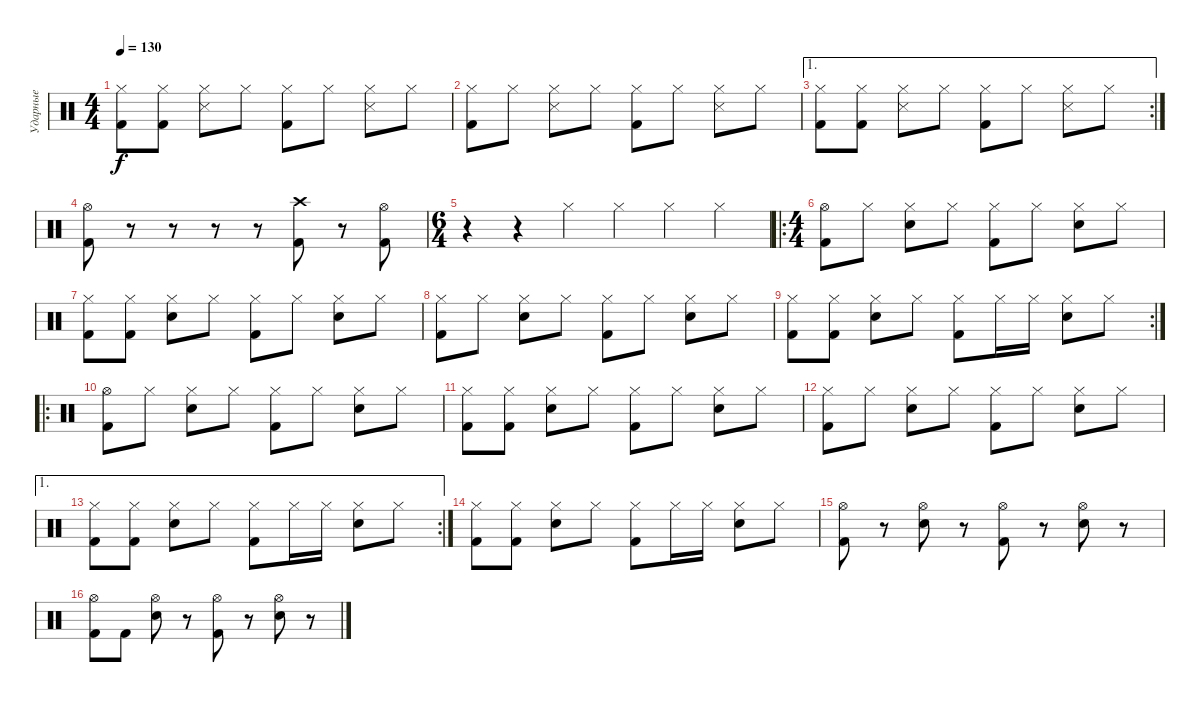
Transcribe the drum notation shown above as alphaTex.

\track ("Ударные" "Ударные") {instrument percussion}
\staff {score}
\articulation defaults
\ts (4 4)
\tempo 130
\clef neutral
\ks c
("Kick (hit) 2" "Hi-Hat (closed)").8{dy f} ("Kick (hit) 2" "Hi-Hat (closed)").8 ("Snare (side stick) 3" "Hi-Hat (closed)").8 "Hi-Hat (closed)".8 ("Kick (hit) 2" "Hi-Hat (closed)").8 "Hi-Hat (closed)".8 ("Snare (side stick) 3" "Hi-Hat (closed)").8 "Hi-Hat (closed)".8 |
("Kick (hit) 2" "Hi-Hat (closed)").8 "Hi-Hat (closed)".8 ("Snare (side stick) 3" "Hi-Hat (closed)").8 "Hi-Hat (closed)".8 ("Kick (hit) 2" "Hi-Hat (closed)").8 "Hi-Hat (closed)".8 ("Snare (side stick) 3" "Hi-Hat (closed)").8 "Hi-Hat (closed)".8 |
\ae 1
\rc 2
("Kick (hit) 2" "Hi-Hat (closed)").8 ("Kick (hit) 2" "Hi-Hat (closed)").8 ("Snare (side stick) 3" "Hi-Hat (closed)").8 "Hi-Hat (closed)".8 ("Kick (hit) 2" "Hi-Hat (closed)").8 "Hi-Hat (closed)".8 ("Snare (side stick) 3" "Hi-Hat (closed)").8 "Hi-Hat (closed)".8 |
("Kick (hit) 2" "Hi-Hat (open)").8 r.8 r.8 r.8 r.8 ("Kick (hit) 2" "Crash high (hit)").8 r.8 ("Kick (hit) 2" "Hi-Hat (open)").8 |
\ts (6 4)
r.4 r.4 "Hi-Hat (closed)".4 "Hi-Hat (closed)".4 "Hi-Hat (closed)".4 "Hi-Hat (closed)".4 |
\ro
\ts (4 4)
("Kick (hit) 2" "Hi-Hat (open)").8 "Hi-Hat (closed)".8 ("Electric Snare (hit)" "Hi-Hat (closed)").8 "Hi-Hat (closed)".8 ("Kick (hit) 2" "Hi-Hat (closed)").8 "Hi-Hat (closed)".8 ("Electric Snare (hit)" "Hi-Hat (closed)").8 "Hi-Hat (closed)".8 |
("Kick (hit) 2" "Hi-Hat (closed)").8 ("Kick (hit) 2" "Hi-Hat (closed)").8 ("Electric Snare (hit)" "Hi-Hat (closed)").8 "Hi-Hat (closed)".8 ("Kick (hit) 2" "Hi-Hat (closed)").8 "Hi-Hat (closed)".8 ("Electric Snare (hit)" "Hi-Hat (closed)").8 "Hi-Hat (closed)".8 |
("Kick (hit) 2" "Hi-Hat (closed)").8 "Hi-Hat (closed)".8 ("Electric Snare (hit)" "Hi-Hat (closed)").8 "Hi-Hat (closed)".8 ("Kick (hit) 2" "Hi-Hat (closed)").8 "Hi-Hat (closed)".8 ("Electric Snare (hit)" "Hi-Hat (closed)").8 "Hi-Hat (closed)".8 |
\rc 2
("Kick (hit) 2" "Hi-Hat (closed)").8 ("Kick (hit) 2" "Hi-Hat (closed)").8 ("Electric Snare (hit)" "Hi-Hat (closed)").8 "Hi-Hat (closed)".8 ("Kick (hit) 2" "Hi-Hat (closed)").8 "Hi-Hat (closed)".16 "Hi-Hat (closed)".16 ("Electric Snare (hit)" "Hi-Hat (closed)").8 "Hi-Hat (closed)".8 |
\ro
("Kick (hit) 2" "Hi-Hat (open)").8 "Hi-Hat (closed)".8 ("Electric Snare (hit)" "Hi-Hat (closed)").8 "Hi-Hat (closed)".8 ("Kick (hit) 2" "Hi-Hat (closed)").8 "Hi-Hat (closed)".8 ("Electric Snare (hit)" "Hi-Hat (closed)").8 "Hi-Hat (closed)".8 |
("Kick (hit) 2" "Hi-Hat (closed)").8 ("Kick (hit) 2" "Hi-Hat (closed)").8 ("Electric Snare (hit)" "Hi-Hat (closed)").8 "Hi-Hat (closed)".8 ("Kick (hit) 2" "Hi-Hat (closed)").8 "Hi-Hat (closed)".8 ("Electric Snare (hit)" "Hi-Hat (closed)").8 "Hi-Hat (closed)".8 |
("Kick (hit) 2" "Hi-Hat (closed)").8 "Hi-Hat (closed)".8 ("Electric Snare (hit)" "Hi-Hat (closed)").8 "Hi-Hat (closed)".8 ("Kick (hit) 2" "Hi-Hat (closed)").8 "Hi-Hat (closed)".8 ("Electric Snare (hit)" "Hi-Hat (closed)").8 "Hi-Hat (closed)".8 |
\ae 1
\rc 2
("Kick (hit) 2" "Hi-Hat (closed)").8 ("Kick (hit) 2" "Hi-Hat (closed)").8 ("Electric Snare (hit)" "Hi-Hat (closed)").8 "Hi-Hat (closed)".8 ("Kick (hit) 2" "Hi-Hat (closed)").8 "Hi-Hat (closed)".16 "Hi-Hat (closed)".16 ("Electric Snare (hit)" "Hi-Hat (closed)").8 "Hi-Hat (closed)".8 |
("Kick (hit) 2" "Hi-Hat (closed)").8 ("Kick (hit) 2" "Hi-Hat (closed)").8 ("Electric Snare (hit)" "Hi-Hat (closed)").8 "Hi-Hat (closed)".8 ("Kick (hit) 2" "Hi-Hat (closed)").8 "Hi-Hat (closed)".16 "Hi-Hat (closed)".16 ("Electric Snare (hit)" "Hi-Hat (closed)").8 "Hi-Hat (closed)".8 |
("Kick (hit) 2" "Hi-Hat (open)").8 r.8 ("Electric Snare (hit)" "Hi-Hat (open)").8 r.8 ("Kick (hit) 2" "Hi-Hat (open)").8 r.8 ("Electric Snare (hit)" "Hi-Hat (open)").8 r.8 |
("Kick (hit) 2" "Hi-Hat (open)").8 "Kick (hit) 2".8 ("Electric Snare (hit)" "Hi-Hat (open)").8 r.8 ("Kick (hit) 2" "Hi-Hat (open)").8 r.8 ("Electric Snare (hit)" "Hi-Hat (open)").8 r.8
